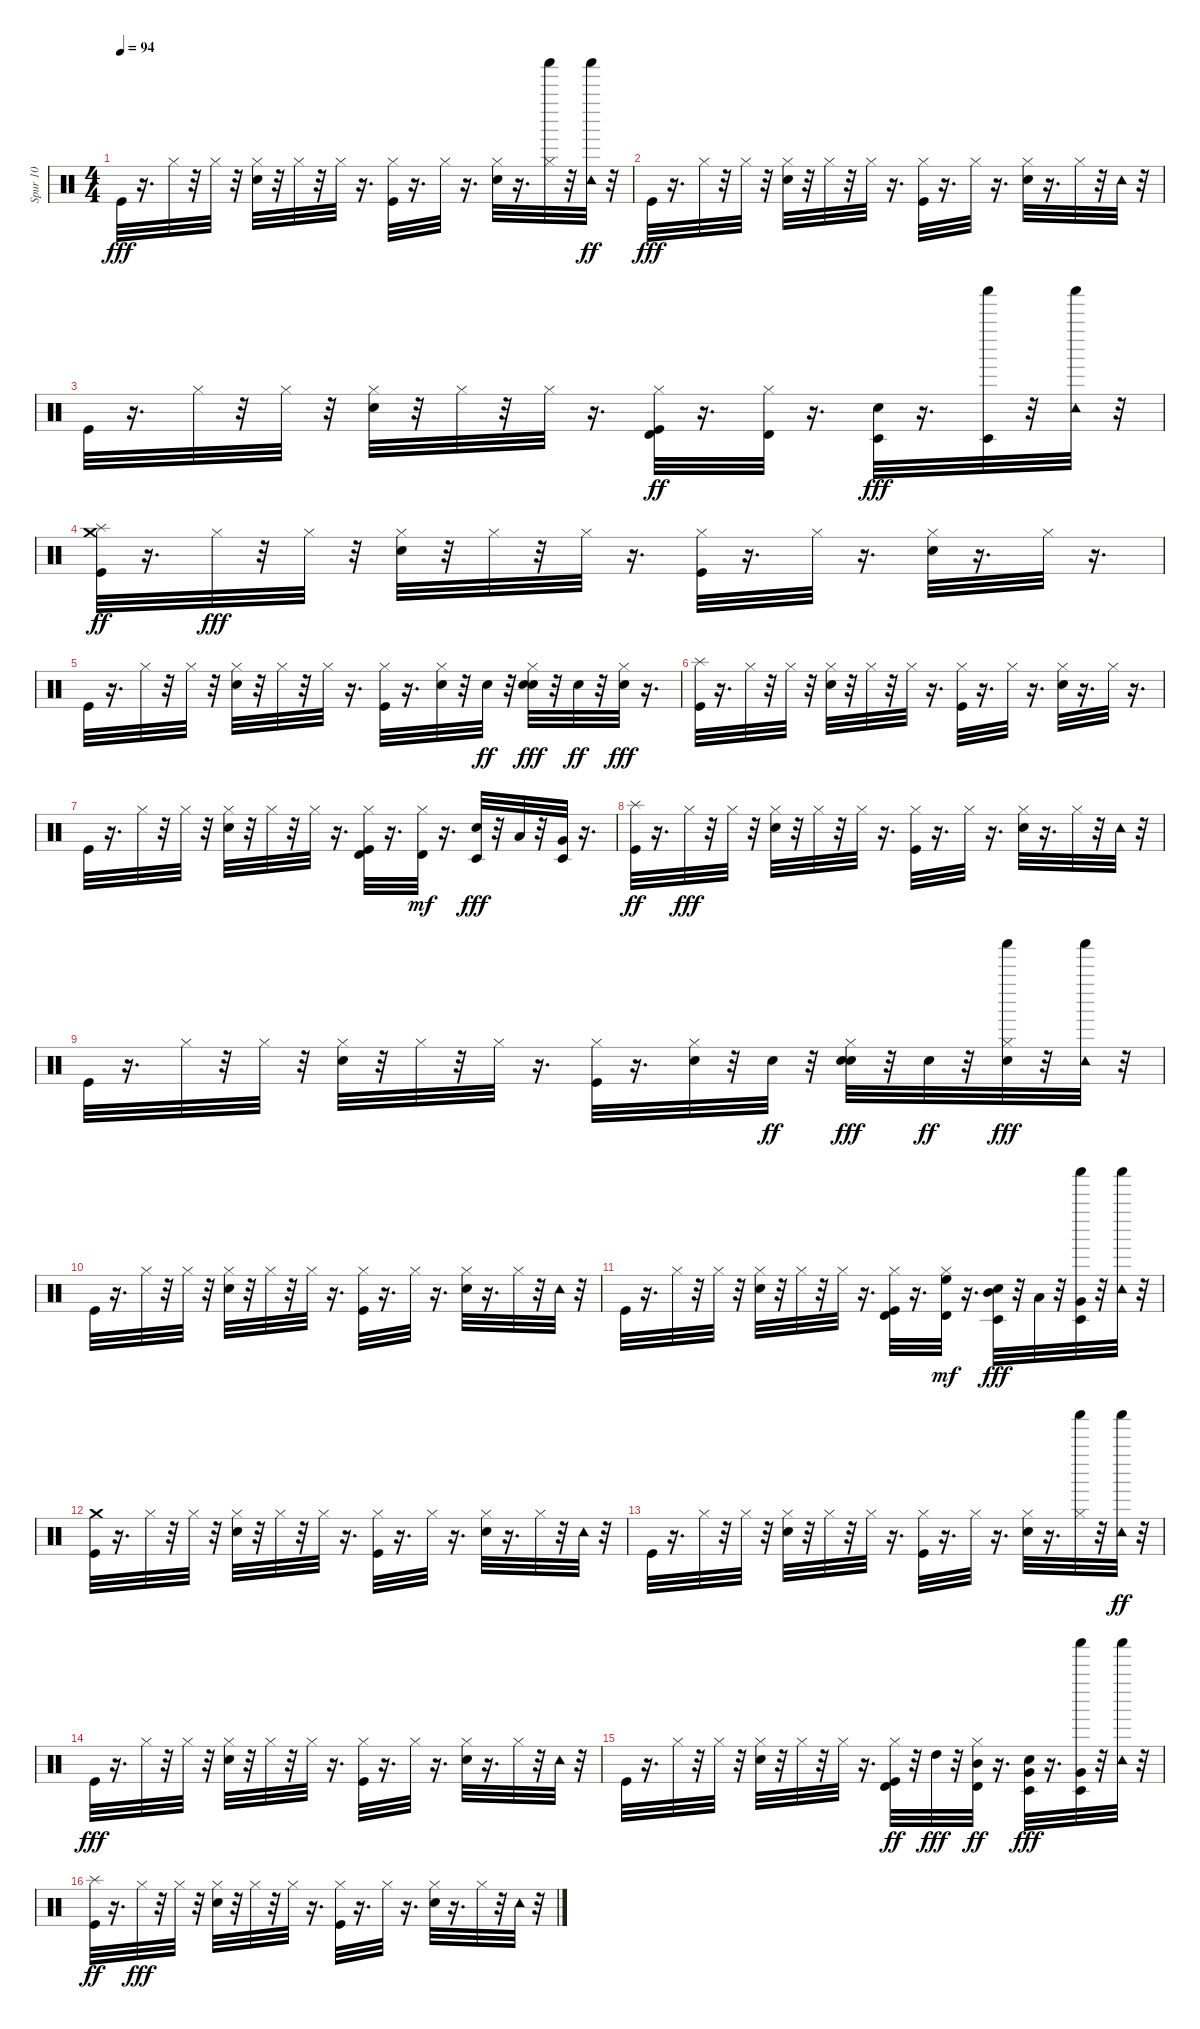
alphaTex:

\track ("Spur 10" "Spur 10") {instrument percussion}
\staff {score}
\articulation defaults
\ts (4 4)
\tempo 94
\clef neutral
\ks c "Kick (hit)".32{dy fff}
r.16{d} "Hi-Hat (closed)".32 r.32 "Hi-Hat (closed)".32 r.32 ("Snare (hit) 2" "Hi-Hat (closed)").32 r.32 "Hi-Hat (closed)".32 r.32 "Hi-Hat (closed)".32 r.16{d} ("Kick (hit)" "Hi-Hat (closed)").32 r.16{d} "Hi-Hat (closed)".32 r.16{d} ("Snare (hit) 2" "Hi-Hat (closed)").32 r.16{d} ("Hi-Hat (closed)" "Shaker (hit)").32 r.32 ("Tambourine (hit)" "Shaker (hit)").32{dy ff} r.32 |
"Kick (hit)".32{dy fff} r.16{d} "Hi-Hat (closed)".32 r.32 "Hi-Hat (closed)".32 r.32 ("Snare (hit) 2" "Hi-Hat (closed)").32 r.32 "Hi-Hat (closed)".32 r.32 "Hi-Hat (closed)".32 r.16{d} ("Kick (hit)" "Hi-Hat (closed)").32 r.16{d} "Hi-Hat (closed)".32 r.16{d} ("Snare (hit) 2" "Hi-Hat (closed)").32 r.16{d} "Hi-Hat (closed)".32 r.32 "Tambourine (hit)".32 r.32 |
"Kick (hit)".32 r.16{d} "Hi-Hat (closed)".32 r.32 "Hi-Hat (closed)".32 r.32 ("Snare (hit) 2" "Hi-Hat (closed)").32 r.32 "Hi-Hat (closed)".32 r.32 "Hi-Hat (closed)".32 r.16{d} ("Kick (hit)" "Hi-Hat (closed)" "Timbale high (hit)").32{dy ff} r.16{d} ("Hi-Hat (closed)" "Timbale high (hit)").32 r.16{d} ("Snare (hit) 2" "Timbale low (hit)").32{dy fff} r.16{d} ("Shaker (hit)" "Timbale low (hit)").32 r.32 ("Tambourine (hit)" "Shaker (hit)").32 r.32 |
("Kick (hit)" "Splash (hit)" "Crash medium (hit)").32{dy ff} r.16{d} "Hi-Hat (closed)".32{dy fff} r.32 "Hi-Hat (closed)".32 r.32 ("Snare (hit) 2" "Hi-Hat (closed)").32 r.32 "Hi-Hat (closed)".32 r.32 "Hi-Hat (closed)".32 r.16{d} ("Kick (hit)" "Hi-Hat (closed)").32 r.16{d} "Hi-Hat (closed)".32 r.16{d} ("Snare (hit) 2" "Hi-Hat (closed)").32 r.16{d} "Hi-Hat (closed)".32 r.16{d} |
"Kick (hit)".32 r.16{d} "Hi-Hat (closed)".32 r.32 "Hi-Hat (closed)".32 r.32 ("Snare (hit) 2" "Hi-Hat (closed)").32 r.32 "Hi-Hat (closed)".32 r.32 "Hi-Hat (closed)".32 r.16{d} ("Kick (hit)" "Hi-Hat (closed)").32 r.16{d} ("Hand Clap (hit)" "Hi-Hat (closed)").32 r.32 "Hand Clap (hit)".32{dy ff} r.32 ("Snare (hit) 2" "Hand Clap (hit)" "Hi-Hat (closed)").32{dy fff} r.32 "Hand Clap (hit)".32{dy ff} r.32 ("Hi-Hat (closed)" "Hand Clap (hit)").32{dy fff} r.16{d} |
("Kick (hit)" "Splash (hit)").32 r.16{d} "Hi-Hat (closed)".32 r.32 "Hi-Hat (closed)".32 r.32 ("Snare (hit) 2" "Hi-Hat (closed)").32 r.32 "Hi-Hat (closed)".32 r.32 "Hi-Hat (closed)".32 r.16{d} ("Kick (hit)" "Hi-Hat (closed)").32 r.16{d} "Hi-Hat (closed)".32 r.16{d} ("Snare (hit) 2" "Hi-Hat (closed)").32 r.16{d} "Hi-Hat (closed)".32 r.16{d} |
"Kick (hit)".32 r.16{d} "Hi-Hat (closed)".32 r.32 "Hi-Hat (closed)".32 r.32 ("Snare (hit) 2" "Hi-Hat (closed)").32 r.32 "Hi-Hat (closed)".32 r.32 "Hi-Hat (closed)".32 r.16{d} ("Kick (hit)" "Hi-Hat (closed)" "Timbale high (hit)").32 r.16{d} ("Hi-Hat (closed)" "Timbale high (hit)").32{dy mf} r.16{d} ("Snare (hit) 2" "Timbale low (hit)").32{dy fff} r.32 "Low Tom (hit)".32 r.32 ("Very Low Tom (hit)" "Timbale low (hit)").32 r.16{d} |
("Kick (hit)" "Splash (hit)").32{dy ff} r.16{d} "Hi-Hat (closed)".32{dy fff} r.32 "Hi-Hat (closed)".32 r.32 ("Snare (hit) 2" "Hi-Hat (closed)").32 r.32 "Hi-Hat (closed)".32 r.32 "Hi-Hat (closed)".32 r.16{d} ("Kick (hit)" "Hi-Hat (closed)").32 r.16{d} "Hi-Hat (closed)".32 r.16{d} ("Snare (hit) 2" "Hi-Hat (closed)").32 r.16{d} "Hi-Hat (closed)".32 r.32 "Tambourine (hit)".32 r.32 |
"Kick (hit)".32 r.16{d} "Hi-Hat (closed)".32 r.32 "Hi-Hat (closed)".32 r.32 ("Snare (hit) 2" "Hi-Hat (closed)").32 r.32 "Hi-Hat (closed)".32 r.32 "Hi-Hat (closed)".32 r.16{d} ("Kick (hit)" "Hi-Hat (closed)").32 r.16{d} ("Hand Clap (hit)" "Hi-Hat (closed)").32 r.32 "Hand Clap (hit)".32{dy ff} r.32 ("Snare (hit) 2" "Hand Clap (hit)" "Hi-Hat (closed)").32{dy fff} r.32 "Hand Clap (hit)".32{dy ff} r.32 ("Hi-Hat (closed)" "Shaker (hit)" "Hand Clap (hit)").32{dy fff} r.32 ("Tambourine (hit)" "Shaker (hit)").32 r.32 |
"Kick (hit)".32 r.16{d} "Hi-Hat (closed)".32 r.32 "Hi-Hat (closed)".32 r.32 ("Snare (hit) 2" "Hi-Hat (closed)").32 r.32 "Hi-Hat (closed)".32 r.32 "Hi-Hat (closed)".32 r.16{d} ("Kick (hit)" "Hi-Hat (closed)").32 r.16{d} "Hi-Hat (closed)".32 r.16{d} ("Snare (hit) 2" "Hi-Hat (closed)").32 r.16{d} "Hi-Hat (closed)".32 r.32 "Tambourine (hit)".32 r.32 |
"Kick (hit)".32 r.16{d} "Hi-Hat (closed)".32 r.32 "Hi-Hat (closed)".32 r.32 ("Snare (hit) 2" "Hi-Hat (closed)").32 r.32 "Hi-Hat (closed)".32 r.32 "Hi-Hat (closed)".32 r.16{d} ("Kick (hit)" "Hi-Hat (closed)" "Timbale high (hit)").32 r.16{d} ("Hi-Hat (closed)" "High Floor Tom (hit)" "Timbale high (hit)").32{dy mf} r.16{d} ("Snare (hit) 2" "Mid Tom (hit)" "Timbale low (hit)").32{dy fff} r.32 "Low Tom (hit)".32 r.32 ("Shaker (hit)" "Very Low Tom (hit)" "Timbale low (hit)").32 r.32 ("Tambourine (hit)" "Shaker (hit)").32 r.32 |
("Kick (hit)" "Crash medium (hit)").32 r.16{d} "Hi-Hat (closed)".32 r.32 "Hi-Hat (closed)".32 r.32 ("Snare (hit) 2" "Hi-Hat (closed)").32 r.32 "Hi-Hat (closed)".32 r.32 "Hi-Hat (closed)".32 r.16{d} ("Kick (hit)" "Hi-Hat (closed)").32 r.16{d} "Hi-Hat (closed)".32 r.16{d} ("Snare (hit) 2" "Hi-Hat (closed)").32 r.16{d} "Hi-Hat (closed)".32 r.32 "Tambourine (hit)".32 r.32 |
"Kick (hit)".32 r.16{d} "Hi-Hat (closed)".32 r.32 "Hi-Hat (closed)".32 r.32 ("Snare (hit) 2" "Hi-Hat (closed)").32 r.32 "Hi-Hat (closed)".32 r.32 "Hi-Hat (closed)".32 r.16{d} ("Kick (hit)" "Hi-Hat (closed)").32 r.16{d} "Hi-Hat (closed)".32 r.16{d} ("Snare (hit) 2" "Hi-Hat (closed)").32 r.16{d} ("Hi-Hat (closed)" "Shaker (hit)").32 r.32 ("Tambourine (hit)" "Shaker (hit)").32{dy ff} r.32 |
"Kick (hit)".32{dy fff} r.16{d} "Hi-Hat (closed)".32 r.32 "Hi-Hat (closed)".32 r.32 ("Snare (hit) 2" "Hi-Hat (closed)").32 r.32 "Hi-Hat (closed)".32 r.32 "Hi-Hat (closed)".32 r.16{d} ("Kick (hit)" "Hi-Hat (closed)").32 r.16{d} "Hi-Hat (closed)".32 r.16{d} ("Snare (hit) 2" "Hi-Hat (closed)").32 r.16{d} "Hi-Hat (closed)".32 r.32 "Tambourine (hit)".32 r.32 |
"Kick (hit)".32 r.16{d} "Hi-Hat (closed)".32 r.32 "Hi-Hat (closed)".32 r.32 ("Snare (hit) 2" "Hi-Hat (closed)").32 r.32 "Hi-Hat (closed)".32 r.32 "Hi-Hat (closed)".32 r.16{d} ("Kick (hit)" "Hi-Hat (closed)" "Timbale high (hit)").32{dy ff} r.32 "High Tom (hit)".32{dy fff} r.32 ("Mid Tom (hit)" "Hi-Hat (closed)" "Timbale high (hit)").32{dy ff} r.16{d} ("Snare (hit) 2" "Timbale low (hit)" "Very Low Tom (hit)").32{dy fff} r.16{d} ("Shaker (hit)" "Timbale low (hit)" "Very Low Tom (hit)").32 r.32 ("Tambourine (hit)" "Shaker (hit)").32 r.32 |
("Kick (hit)" "Splash (hit)").32{dy ff} r.16{d} "Hi-Hat (closed)".32{dy fff} r.32 "Hi-Hat (closed)".32 r.32 ("Snare (hit) 2" "Hi-Hat (closed)").32 r.32 "Hi-Hat (closed)".32 r.32 "Hi-Hat (closed)".32 r.16{d} ("Kick (hit)" "Hi-Hat (closed)").32 r.16{d} "Hi-Hat (closed)".32 r.16{d} ("Snare (hit) 2" "Hi-Hat (closed)").32 r.16{d} "Hi-Hat (closed)".32 r.32 "Tambourine (hit)".32 r.32
